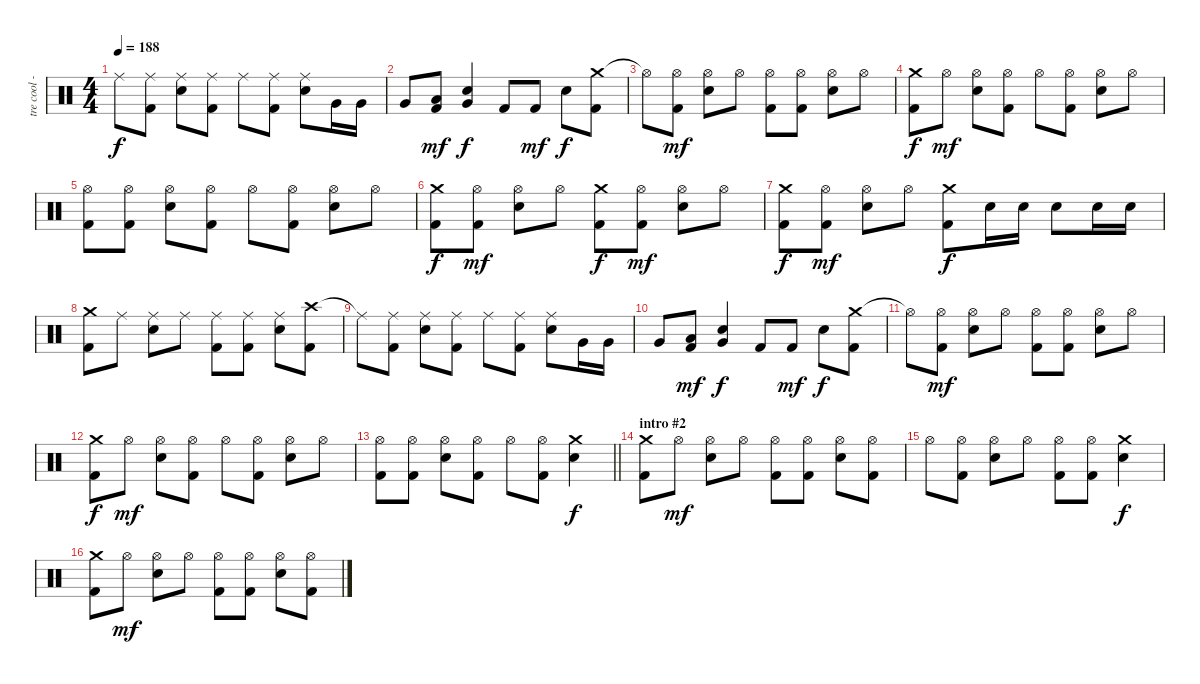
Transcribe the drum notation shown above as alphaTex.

\track ("tre cool - drums" "tre cool -") {instrument percussion}
\staff {score}
\articulation defaults
\ts (4 4)
\tempo 188
\clef neutral
\ks c "Ride (middle)".8{dy f}
("Ride (middle)" "Kick (hit) 2").8 ("Ride (middle)" "Electric Snare (hit)").8 ("Ride (middle)" "Kick (hit) 2").8 "Ride (middle)".8 ("Ride (middle)" "Kick (hit) 2").8 ("Ride (middle)" "Electric Snare (hit)").8 "Very Low Tom (hit)".16 "Very Low Tom (hit)".16 |
"Very Low Tom (hit)".8 ("Low Tom (hit)" "Kick (hit) 2").8{dy mf} ("Electric Snare (hit)" "Very Low Tom (hit)").4{dy f} "Kick (hit) 2".8 "Kick (hit) 2".8{dy mf} "Electric Snare (hit)".8{dy f} ("Crash medium (hit)" "Kick (hit) 2").8 |
"Hi-Hat (open)"{t}.8 ("Hi-Hat (open)" "Kick (hit) 2").8{dy mf} ("Hi-Hat (open)" "Electric Snare (hit)").8 "Hi-Hat (open)".8 ("Hi-Hat (open)" "Kick (hit) 2").8 ("Hi-Hat (open)" "Kick (hit) 2").8 ("Hi-Hat (open)" "Electric Snare (hit)").8 "Hi-Hat (open)".8 |
("Crash medium (hit)" "Kick (hit) 2").8{dy f} "Hi-Hat (open)".8{dy mf} ("Hi-Hat (open)" "Electric Snare (hit)").8 ("Hi-Hat (open)" "Kick (hit) 2").8 "Hi-Hat (open)".8 ("Hi-Hat (open)" "Kick (hit) 2").8 ("Hi-Hat (open)" "Electric Snare (hit)").8 "Hi-Hat (open)".8 |
("Hi-Hat (open)" "Kick (hit) 2").8 ("Hi-Hat (open)" "Kick (hit) 2").8 ("Hi-Hat (open)" "Electric Snare (hit)").8 ("Hi-Hat (open)" "Kick (hit) 2").8 "Hi-Hat (open)".8 ("Hi-Hat (open)" "Kick (hit) 2").8 ("Hi-Hat (open)" "Electric Snare (hit)").8 "Hi-Hat (open)".8 |
("Crash medium (hit)" "Kick (hit) 2").8{dy f} ("Hi-Hat (open)" "Kick (hit) 2").8{dy mf} ("Hi-Hat (open)" "Electric Snare (hit)").8 "Hi-Hat (open)".8 ("Crash medium (hit)" "Kick (hit) 2").8{dy f} ("Hi-Hat (open)" "Kick (hit) 2").8{dy mf} ("Hi-Hat (open)" "Electric Snare (hit)").8 "Hi-Hat (open)".8 |
("Crash medium (hit)" "Kick (hit) 2").8{dy f} ("Hi-Hat (open)" "Kick (hit) 2").8{dy mf} ("Hi-Hat (open)" "Electric Snare (hit)").8 "Hi-Hat (open)".8 ("Crash medium (hit)" "Kick (hit) 2").8{dy f} "Electric Snare (hit)".16 "Electric Snare (hit)".16 "Electric Snare (hit)".8 "Electric Snare (hit)".16 "Electric Snare (hit)".16 |
("Crash medium (hit)" "Kick (hit) 2").8 "Ride (middle)".8 ("Ride (middle)" "Electric Snare (hit)").8 "Ride (middle)".8 ("Ride (middle)" "Kick (hit) 2").8 ("Ride (middle)" "Kick (hit) 2").8 ("Ride (middle)" "Electric Snare (hit)").8 ("Crash high (hit)" "Kick (hit) 2").8 |
"Ride (middle)"{t}.8 ("Ride (middle)" "Kick (hit) 2").8 ("Ride (middle)" "Electric Snare (hit)").8 ("Ride (middle)" "Kick (hit) 2").8 "Ride (middle)".8 ("Ride (middle)" "Kick (hit) 2").8 ("Ride (middle)" "Electric Snare (hit)").8 "Very Low Tom (hit)".16 "Very Low Tom (hit)".16 |
"Very Low Tom (hit)".8 ("Low Tom (hit)" "Kick (hit) 2").8{dy mf} ("Electric Snare (hit)" "Very Low Tom (hit)").4{dy f} "Kick (hit) 2".8 "Kick (hit) 2".8{dy mf} "Electric Snare (hit)".8{dy f} ("Crash medium (hit)" "Kick (hit) 2").8 |
"Hi-Hat (open)"{t}.8 ("Hi-Hat (open)" "Kick (hit) 2").8{dy mf} ("Hi-Hat (open)" "Electric Snare (hit)").8 "Hi-Hat (open)".8 ("Hi-Hat (open)" "Kick (hit) 2").8 ("Hi-Hat (open)" "Kick (hit) 2").8 ("Hi-Hat (open)" "Electric Snare (hit)").8 "Hi-Hat (open)".8 |
("Crash medium (hit)" "Kick (hit) 2").8{dy f} "Hi-Hat (open)".8{dy mf} ("Hi-Hat (open)" "Electric Snare (hit)").8 ("Hi-Hat (open)" "Kick (hit) 2").8 "Hi-Hat (open)".8 ("Hi-Hat (open)" "Kick (hit) 2").8 ("Hi-Hat (open)" "Electric Snare (hit)").8 "Hi-Hat (open)".8 |
\barLineRight lightlight
("Hi-Hat (open)" "Kick (hit) 2").8 ("Hi-Hat (open)" "Kick (hit) 2").8 ("Hi-Hat (open)" "Electric Snare (hit)").8 ("Hi-Hat (open)" "Kick (hit) 2").8 "Hi-Hat (open)".8 ("Hi-Hat (open)" "Kick (hit) 2").8 ("Crash medium (hit)" "Electric Snare (hit)").4{dy f} |
\section ("" "intro #2")
("Crash medium (hit)" "Kick (hit) 2").8 "Hi-Hat (open)".8{dy mf} ("Hi-Hat (open)" "Electric Snare (hit)").8 "Hi-Hat (open)".8 ("Hi-Hat (open)" "Kick (hit) 2").8 ("Hi-Hat (open)" "Kick (hit) 2").8 ("Hi-Hat (open)" "Electric Snare (hit)").8 ("Hi-Hat (open)" "Kick (hit) 2").8 |
"Hi-Hat (open)".8 ("Hi-Hat (open)" "Kick (hit) 2").8 ("Hi-Hat (open)" "Electric Snare (hit)").8 "Hi-Hat (open)".8 ("Hi-Hat (open)" "Kick (hit) 2").8 ("Hi-Hat (open)" "Kick (hit) 2").8 ("Crash medium (hit)" "Electric Snare (hit)").4{dy f} |
("Crash medium (hit)" "Kick (hit) 2").8 "Hi-Hat (open)".8{dy mf} ("Hi-Hat (open)" "Electric Snare (hit)").8 "Hi-Hat (open)".8 ("Hi-Hat (open)" "Kick (hit) 2").8 ("Hi-Hat (open)" "Kick (hit) 2").8 ("Hi-Hat (open)" "Electric Snare (hit)").8 ("Hi-Hat (open)" "Kick (hit) 2").8
